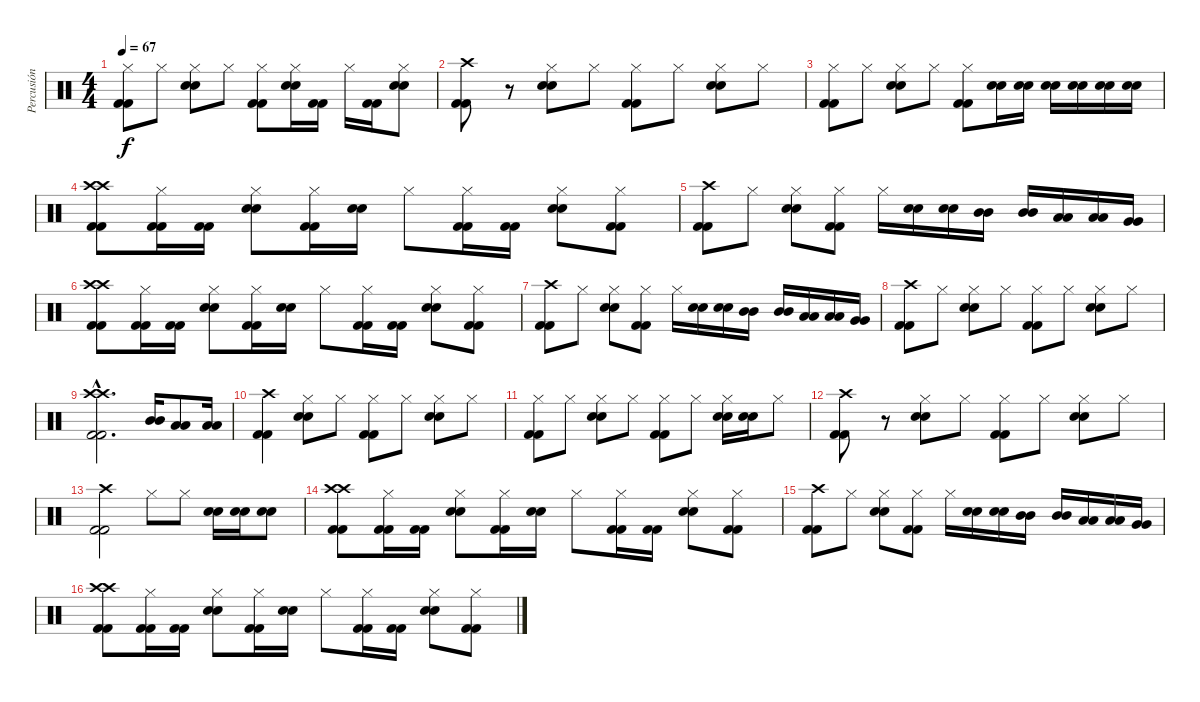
\track ("Percusión" "Percusión") {instrument percussion}
\staff {score}
\articulation defaults
\ts (4 4)
\tempo 67
\clef neutral
\ks c
("Hi-Hat (closed)" "Kick (hit) 2" "Kick (hit) 2").8{dy f} "Hi-Hat (closed)".8 ("Hi-Hat (closed)" "Electric Snare (hit)" "Electric Snare (hit)").8 "Hi-Hat (closed)".8 ("Hi-Hat (closed)" "Kick (hit) 2" "Kick (hit) 2").8 ("Hi-Hat (closed)" "Electric Snare (hit)" "Electric Snare (hit)").16 ("Kick (hit) 2" "Kick (hit) 2").16 "Hi-Hat (closed)".16 ("Kick (hit) 2" "Kick (hit) 2").16 ("Hi-Hat (closed)" "Electric Snare (hit)" "Electric Snare (hit)").8 |
("Crash high (hit)" "Kick (hit) 2" "Kick (hit) 2").8 r.8 ("Hi-Hat (closed)" "Electric Snare (hit)" "Electric Snare (hit)").8 "Hi-Hat (closed)".8 ("Hi-Hat (closed)" "Kick (hit) 2" "Kick (hit) 2").8 "Hi-Hat (closed)".8 ("Hi-Hat (closed)" "Electric Snare (hit)" "Electric Snare (hit)").8 "Hi-Hat (closed)".8 |
("Hi-Hat (closed)" "Kick (hit) 2" "Kick (hit) 2").8 "Hi-Hat (closed)".8 ("Hi-Hat (closed)" "Electric Snare (hit)" "Electric Snare (hit)").8 "Hi-Hat (closed)".8 ("Hi-Hat (closed)" "Kick (hit) 2" "Kick (hit) 2").8 ("Electric Snare (hit)" "Electric Snare (hit)").16 ("Electric Snare (hit)" "Electric Snare (hit)").16 ("Electric Snare (hit)" "Electric Snare (hit)").16 ("Electric Snare (hit)" "Electric Snare (hit)").16 ("Electric Snare (hit)" "Electric Snare (hit)").16 ("Electric Snare (hit)" "Electric Snare (hit)").16 |
("Crash high (hit)" "Crash high (hit)" "Kick (hit) 2" "Kick (hit) 2").8 ("Hi-Hat (closed)" "Kick (hit) 2" "Kick (hit) 2").16 ("Kick (hit) 2" "Kick (hit) 2").16 ("Hi-Hat (closed)" "Electric Snare (hit)" "Electric Snare (hit)").8 ("Hi-Hat (closed)" "Kick (hit) 2" "Kick (hit) 2").16 ("Electric Snare (hit)" "Electric Snare (hit)").16 "Hi-Hat (closed)".8 ("Hi-Hat (closed)" "Kick (hit) 2" "Kick (hit) 2").16 ("Kick (hit) 2" "Kick (hit) 2").16 ("Hi-Hat (closed)" "Electric Snare (hit)" "Electric Snare (hit)").8 ("Hi-Hat (closed)" "Kick (hit) 2" "Kick (hit) 2").8 |
("Crash high (hit)" "Kick (hit) 2" "Kick (hit) 2").8 "Hi-Hat (closed)".8 ("Hi-Hat (closed)" "Electric Snare (hit)" "Electric Snare (hit)").8 ("Hi-Hat (closed)" "Kick (hit) 2" "Kick (hit) 2").8 "Hi-Hat (closed)".16 ("Electric Snare (hit)" "Electric Snare (hit)").16 ("Electric Snare (hit)" "Electric Snare (hit)").16 ("Mid Tom (hit)" "Mid Tom (hit)").16 ("Mid Tom (hit)" "Mid Tom (hit)").16 ("Low Tom (hit)" "Low Tom (hit)").16 ("Low Tom (hit)" "Low Tom (hit)").16 ("Very Low Tom (hit)" "Very Low Tom (hit)").16 |
("Crash high (hit)" "Crash high (hit)" "Kick (hit) 2" "Kick (hit) 2").8 ("Hi-Hat (closed)" "Kick (hit) 2" "Kick (hit) 2").16 ("Kick (hit) 2" "Kick (hit) 2").16 ("Hi-Hat (closed)" "Electric Snare (hit)" "Electric Snare (hit)").8 ("Hi-Hat (closed)" "Kick (hit) 2" "Kick (hit) 2").16 ("Electric Snare (hit)" "Electric Snare (hit)").16 "Hi-Hat (closed)".8 ("Hi-Hat (closed)" "Kick (hit) 2" "Kick (hit) 2").16 ("Kick (hit) 2" "Kick (hit) 2").16 ("Hi-Hat (closed)" "Electric Snare (hit)" "Electric Snare (hit)").8 ("Hi-Hat (closed)" "Kick (hit) 2" "Kick (hit) 2").8 |
("Crash high (hit)" "Kick (hit) 2" "Kick (hit) 2").8 "Hi-Hat (closed)".8 ("Hi-Hat (closed)" "Electric Snare (hit)" "Electric Snare (hit)").8 ("Hi-Hat (closed)" "Kick (hit) 2" "Kick (hit) 2").8 "Hi-Hat (closed)".16 ("Electric Snare (hit)" "Electric Snare (hit)").16 ("Electric Snare (hit)" "Electric Snare (hit)").16 ("Mid Tom (hit)" "Mid Tom (hit)").16 ("Mid Tom (hit)" "Mid Tom (hit)").16 ("Low Tom (hit)" "Low Tom (hit)").16 ("Low Tom (hit)" "Low Tom (hit)").16 ("Very Low Tom (hit)" "Very Low Tom (hit)").16 |
("Crash high (hit)" "Kick (hit) 2" "Kick (hit) 2").8 "Hi-Hat (closed)".8 ("Hi-Hat (closed)" "Electric Snare (hit)" "Electric Snare (hit)").8 "Hi-Hat (closed)".8 ("Hi-Hat (closed)" "Kick (hit) 2" "Kick (hit) 2").8 "Hi-Hat (closed)".8 ("Hi-Hat (closed)" "Electric Snare (hit)" "Electric Snare (hit)").8 "Hi-Hat (closed)".8 |
("Crash high (hit)"{hac} "Crash high (hit)"{hac} "Kick (hit) 2"{hac} "Kick (hit) 2"{hac}).2{d} ("Mid Tom (hit)" "Mid Tom (hit)").16 ("Low Tom (hit)" "Low Tom (hit)").8 ("Low Tom (hit)" "Low Tom (hit)").16 |
("Crash high (hit)" "Kick (hit) 2" "Kick (hit) 2").4 ("Hi-Hat (closed)" "Electric Snare (hit)" "Electric Snare (hit)").8 "Hi-Hat (closed)".8 ("Hi-Hat (closed)" "Kick (hit) 2" "Kick (hit) 2").8 "Hi-Hat (closed)".8 ("Hi-Hat (closed)" "Electric Snare (hit)" "Electric Snare (hit)").8 "Hi-Hat (closed)".8 |
("Hi-Hat (closed)" "Kick (hit) 2" "Kick (hit) 2").8 "Hi-Hat (closed)".8 ("Hi-Hat (closed)" "Electric Snare (hit)" "Electric Snare (hit)").8 "Hi-Hat (closed)".8 ("Hi-Hat (closed)" "Kick (hit) 2" "Kick (hit) 2").8 "Hi-Hat (closed)".8 ("Hi-Hat (closed)" "Electric Snare (hit)" "Electric Snare (hit)").16 ("Electric Snare (hit)" "Electric Snare (hit)").16 "Hi-Hat (closed)".8 |
("Crash high (hit)" "Kick (hit) 2" "Kick (hit) 2").8 r.8 ("Hi-Hat (closed)" "Electric Snare (hit)" "Electric Snare (hit)").8 "Hi-Hat (closed)".8 ("Hi-Hat (closed)" "Kick (hit) 2" "Kick (hit) 2").8 "Hi-Hat (closed)".8 ("Hi-Hat (closed)" "Electric Snare (hit)" "Electric Snare (hit)").8 "Hi-Hat (closed)".8 |
("Crash high (hit)" "Kick (hit) 2" "Kick (hit) 2").2 "Hi-Hat (closed)".8 "Hi-Hat (closed)".8 ("Electric Snare (hit)" "Electric Snare (hit)").16 ("Electric Snare (hit)" "Electric Snare (hit)").16 ("Electric Snare (hit)" "Electric Snare (hit)").8 |
("Crash high (hit)" "Crash high (hit)" "Kick (hit) 2" "Kick (hit) 2").8 ("Hi-Hat (closed)" "Kick (hit) 2" "Kick (hit) 2").16 ("Kick (hit) 2" "Kick (hit) 2").16 ("Hi-Hat (closed)" "Electric Snare (hit)" "Electric Snare (hit)").8 ("Hi-Hat (closed)" "Kick (hit) 2" "Kick (hit) 2").16 ("Electric Snare (hit)" "Electric Snare (hit)").16 "Hi-Hat (closed)".8 ("Hi-Hat (closed)" "Kick (hit) 2" "Kick (hit) 2").16 ("Kick (hit) 2" "Kick (hit) 2").16 ("Hi-Hat (closed)" "Electric Snare (hit)" "Electric Snare (hit)").8 ("Hi-Hat (closed)" "Kick (hit) 2" "Kick (hit) 2").8 |
("Crash high (hit)" "Kick (hit) 2" "Kick (hit) 2").8 "Hi-Hat (closed)".8 ("Hi-Hat (closed)" "Electric Snare (hit)" "Electric Snare (hit)").8 ("Hi-Hat (closed)" "Kick (hit) 2" "Kick (hit) 2").8 "Hi-Hat (closed)".16 ("Electric Snare (hit)" "Electric Snare (hit)").16 ("Electric Snare (hit)" "Electric Snare (hit)").16 ("Mid Tom (hit)" "Mid Tom (hit)").16 ("Mid Tom (hit)" "Mid Tom (hit)").16 ("Low Tom (hit)" "Low Tom (hit)").16 ("Low Tom (hit)" "Low Tom (hit)").16 ("Very Low Tom (hit)" "Very Low Tom (hit)").16 |
("Crash high (hit)" "Crash high (hit)" "Kick (hit) 2" "Kick (hit) 2").8 ("Hi-Hat (closed)" "Kick (hit) 2" "Kick (hit) 2").16 ("Kick (hit) 2" "Kick (hit) 2").16 ("Hi-Hat (closed)" "Electric Snare (hit)" "Electric Snare (hit)").8 ("Hi-Hat (closed)" "Kick (hit) 2" "Kick (hit) 2").16 ("Electric Snare (hit)" "Electric Snare (hit)").16 "Hi-Hat (closed)".8 ("Hi-Hat (closed)" "Kick (hit) 2" "Kick (hit) 2").16 ("Kick (hit) 2" "Kick (hit) 2").16 ("Hi-Hat (closed)" "Electric Snare (hit)" "Electric Snare (hit)").8 ("Hi-Hat (closed)" "Kick (hit) 2" "Kick (hit) 2").8
